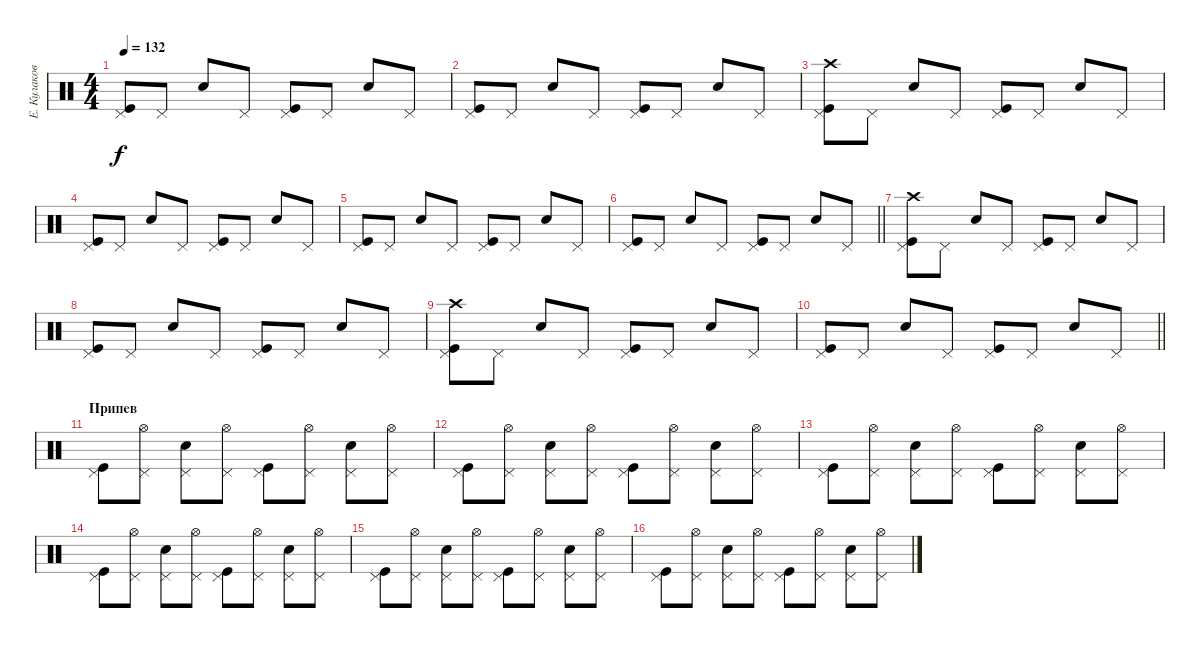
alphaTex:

\track ("Е. Кулаков" "Е. Кулаков") {instrument percussion}
\staff {score}
\articulation defaults
\ts (4 4)
\tempo 132
\clef neutral
\ks c
("Kick (hit)" "Pedal Hi-Hat (hit)").8{dy f} "Pedal Hi-Hat (hit)".8 "Snare (hit) 2".8 "Pedal Hi-Hat (hit)".8 ("Kick (hit)" "Pedal Hi-Hat (hit)").8 "Pedal Hi-Hat (hit)".8 "Snare (hit) 2".8 "Pedal Hi-Hat (hit)".8 |
("Kick (hit)" "Pedal Hi-Hat (hit)").8 "Pedal Hi-Hat (hit)".8 "Snare (hit) 2".8 "Pedal Hi-Hat (hit)".8 ("Kick (hit)" "Pedal Hi-Hat (hit)").8 "Pedal Hi-Hat (hit)".8 "Snare (hit) 2".8 "Pedal Hi-Hat (hit)".8 |
("Kick (hit)" "Pedal Hi-Hat (hit)" "Crash high (hit)").8 "Pedal Hi-Hat (hit)".8 "Snare (hit) 2".8 "Pedal Hi-Hat (hit)".8 ("Kick (hit)" "Pedal Hi-Hat (hit)").8 "Pedal Hi-Hat (hit)".8 "Snare (hit) 2".8 "Pedal Hi-Hat (hit)".8 |
("Kick (hit)" "Pedal Hi-Hat (hit)").8 "Pedal Hi-Hat (hit)".8 "Snare (hit) 2".8 "Pedal Hi-Hat (hit)".8 ("Kick (hit)" "Pedal Hi-Hat (hit)").8 "Pedal Hi-Hat (hit)".8 "Snare (hit) 2".8 "Pedal Hi-Hat (hit)".8 |
("Kick (hit)" "Pedal Hi-Hat (hit)").8 "Pedal Hi-Hat (hit)".8 "Snare (hit) 2".8 "Pedal Hi-Hat (hit)".8 ("Kick (hit)" "Pedal Hi-Hat (hit)").8 "Pedal Hi-Hat (hit)".8 "Snare (hit) 2".8 "Pedal Hi-Hat (hit)".8 |
\barLineRight lightlight
("Kick (hit)" "Pedal Hi-Hat (hit)").8 "Pedal Hi-Hat (hit)".8 "Snare (hit) 2".8 "Pedal Hi-Hat (hit)".8 ("Kick (hit)" "Pedal Hi-Hat (hit)").8 "Pedal Hi-Hat (hit)".8 "Snare (hit) 2".8 "Pedal Hi-Hat (hit)".8 |
\section ("" "")
("Kick (hit)" "Pedal Hi-Hat (hit)" "Crash high (hit)").8 "Pedal Hi-Hat (hit)".8 "Snare (hit) 2".8 "Pedal Hi-Hat (hit)".8 ("Kick (hit)" "Pedal Hi-Hat (hit)").8 "Pedal Hi-Hat (hit)".8 "Snare (hit) 2".8 "Pedal Hi-Hat (hit)".8 |
("Kick (hit)" "Pedal Hi-Hat (hit)").8 "Pedal Hi-Hat (hit)".8 "Snare (hit) 2".8 "Pedal Hi-Hat (hit)".8 ("Kick (hit)" "Pedal Hi-Hat (hit)").8 "Pedal Hi-Hat (hit)".8 "Snare (hit) 2".8 "Pedal Hi-Hat (hit)".8 |
("Kick (hit)" "Pedal Hi-Hat (hit)" "Crash high (hit)").8 "Pedal Hi-Hat (hit)".8 "Snare (hit) 2".8 "Pedal Hi-Hat (hit)".8 ("Kick (hit)" "Pedal Hi-Hat (hit)").8 "Pedal Hi-Hat (hit)".8 "Snare (hit) 2".8 "Pedal Hi-Hat (hit)".8 |
\barLineRight lightlight
("Kick (hit)" "Pedal Hi-Hat (hit)").8 "Pedal Hi-Hat (hit)".8 "Snare (hit) 2".8 "Pedal Hi-Hat (hit)".8 ("Kick (hit)" "Pedal Hi-Hat (hit)").8 "Pedal Hi-Hat (hit)".8 "Snare (hit) 2".8 "Pedal Hi-Hat (hit)".8 |
\section ("" "Припев")
("Kick (hit)" "Pedal Hi-Hat (hit)").8 ("Hi-Hat (open)" "Pedal Hi-Hat (hit)").8 ("Pedal Hi-Hat (hit)" "Snare (hit) 2").8 ("Hi-Hat (open)" "Pedal Hi-Hat (hit)").8 ("Kick (hit)" "Pedal Hi-Hat (hit)").8 ("Hi-Hat (open)" "Pedal Hi-Hat (hit)").8 ("Pedal Hi-Hat (hit)" "Snare (hit) 2").8 ("Hi-Hat (open)" "Pedal Hi-Hat (hit)").8 |
("Kick (hit)" "Pedal Hi-Hat (hit)").8 ("Hi-Hat (open)" "Pedal Hi-Hat (hit)").8 ("Pedal Hi-Hat (hit)" "Snare (hit) 2").8 ("Hi-Hat (open)" "Pedal Hi-Hat (hit)").8 ("Kick (hit)" "Pedal Hi-Hat (hit)").8 ("Hi-Hat (open)" "Pedal Hi-Hat (hit)").8 ("Pedal Hi-Hat (hit)" "Snare (hit) 2").8 ("Hi-Hat (open)" "Pedal Hi-Hat (hit)").8 |
("Kick (hit)" "Pedal Hi-Hat (hit)").8 ("Hi-Hat (open)" "Pedal Hi-Hat (hit)").8 ("Pedal Hi-Hat (hit)" "Snare (hit) 2").8 ("Hi-Hat (open)" "Pedal Hi-Hat (hit)").8 ("Kick (hit)" "Pedal Hi-Hat (hit)").8 ("Hi-Hat (open)" "Pedal Hi-Hat (hit)").8 ("Pedal Hi-Hat (hit)" "Snare (hit) 2").8 ("Hi-Hat (open)" "Pedal Hi-Hat (hit)").8 |
("Kick (hit)" "Pedal Hi-Hat (hit)").8 ("Hi-Hat (open)" "Pedal Hi-Hat (hit)").8 ("Pedal Hi-Hat (hit)" "Snare (hit) 2").8 ("Hi-Hat (open)" "Pedal Hi-Hat (hit)").8 ("Kick (hit)" "Pedal Hi-Hat (hit)").8 ("Hi-Hat (open)" "Pedal Hi-Hat (hit)").8 ("Pedal Hi-Hat (hit)" "Snare (hit) 2").8 ("Hi-Hat (open)" "Pedal Hi-Hat (hit)").8 |
("Kick (hit)" "Pedal Hi-Hat (hit)").8 ("Hi-Hat (open)" "Pedal Hi-Hat (hit)").8 ("Pedal Hi-Hat (hit)" "Snare (hit) 2").8 ("Hi-Hat (open)" "Pedal Hi-Hat (hit)").8 ("Kick (hit)" "Pedal Hi-Hat (hit)").8 ("Hi-Hat (open)" "Pedal Hi-Hat (hit)").8 ("Pedal Hi-Hat (hit)" "Snare (hit) 2").8 ("Hi-Hat (open)" "Pedal Hi-Hat (hit)").8 |
("Kick (hit)" "Pedal Hi-Hat (hit)").8 ("Hi-Hat (open)" "Pedal Hi-Hat (hit)").8 ("Pedal Hi-Hat (hit)" "Snare (hit) 2").8 ("Hi-Hat (open)" "Pedal Hi-Hat (hit)").8 ("Kick (hit)" "Pedal Hi-Hat (hit)").8 ("Hi-Hat (open)" "Pedal Hi-Hat (hit)").8 ("Pedal Hi-Hat (hit)" "Snare (hit) 2").8 ("Hi-Hat (open)" "Pedal Hi-Hat (hit)").8
